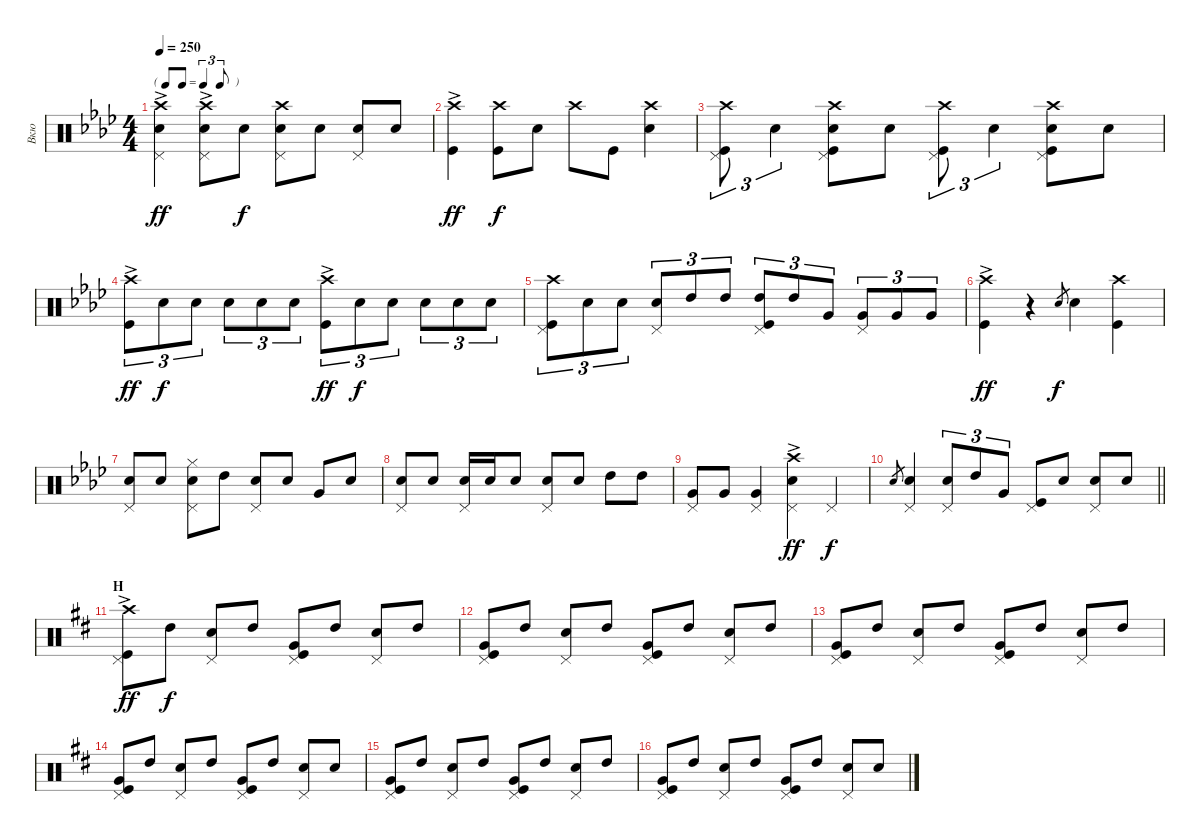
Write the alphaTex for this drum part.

\track ("Вкю" "Вкю") {instrument percussion}
\staff {score}
\articulation defaults
\ts (4 4)
\tf triplet8th
\tempo 250
\clef neutral
\ks ab
("Crash high (hit)"{ac} "Snare (hit) 2"{ac} "Pedal Hi-Hat (hit)"{ac}).4{dy ff} ("Crash high (hit)"{ac} "Snare (hit) 2"{ac} "Pedal Hi-Hat (hit)"{ac}).8 "Snare (hit) 2".8{dy f} ("Crash high (hit)" "Snare (hit) 2" "Pedal Hi-Hat (hit)").8 "Snare (hit) 2".8 ("Snare (hit) 2" "Pedal Hi-Hat (hit)").8 "Snare (hit) 2".8 |
("Crash high (hit)"{ac} "Kick (hit)"{ac}).4{dy ff} ("Crash high (hit)" "Kick (hit)").8{dy f} "Snare (hit) 2".8 "Crash high (hit)".8 "Kick (hit)".8 ("Crash high (hit)" "Snare (hit) 2").4 |
("Crash high (hit)" "Kick (hit)" "Pedal Hi-Hat (hit)").8{tu (3 2)} "Snare (hit) 2".4{tu (3 2)} ("Crash high (hit)" "Snare (hit) 2" "Kick (hit)" "Pedal Hi-Hat (hit)").8 "Snare (hit) 2".8 ("Crash high (hit)" "Kick (hit)" "Pedal Hi-Hat (hit)").8{tu (3 2)} "Snare (hit) 2".4{tu (3 2)} ("Crash high (hit)" "Snare (hit) 2" "Kick (hit)" "Pedal Hi-Hat (hit)").8 "Snare (hit) 2".8 |
("Crash high (hit)"{ac} "Kick (hit)"{ac}).8{tu (3 2) dy ff} "Snare (hit) 2".8{tu (3 2) dy f} "Snare (hit) 2".8{tu (3 2)} "Snare (hit) 2".8{tu (3 2)} "Snare (hit) 2".8{tu (3 2)} "Snare (hit) 2".8{tu (3 2)} ("Crash high (hit)"{ac} "Kick (hit)"{ac}).8{tu (3 2) dy ff} "Snare (hit) 2".8{tu (3 2) dy f} "Snare (hit) 2".8{tu (3 2)} "Snare (hit) 2".8{tu (3 2)} "Snare (hit) 2".8{tu (3 2)} "Snare (hit) 2".8{tu (3 2)} |
("Crash high (hit)" "Kick (hit)" "Pedal Hi-Hat (hit)").8{tu (3 2)} "Snare (hit) 2".8{tu (3 2)} "Snare (hit) 2".8{tu (3 2)} ("Snare (hit) 2" "Pedal Hi-Hat (hit)").8{tu (3 2)} "High Tom (hit)".8{tu (3 2)} "High Tom (hit)".8{tu (3 2)} ("High Tom (hit)" "Kick (hit)" "Pedal Hi-Hat (hit)").8{tu (3 2)} "High Tom (hit)".8{tu (3 2)} "Very Low Tom (hit)".8{tu (3 2)} ("Very Low Tom (hit)" "Pedal Hi-Hat (hit)").8{tu (3 2)} "Very Low Tom (hit)".8{tu (3 2)} "Very Low Tom (hit)".8{tu (3 2)} |
("Crash high (hit)"{ac} "Kick (hit)").4{dy ff} r.4 "Snare (hit) 2".8{gr dy f} "Snare (hit) 2".4 ("Crash high (hit)" "Kick (hit)").4 |
("Snare (hit) 2" "Pedal Hi-Hat (hit)").8 "Snare (hit) 2".8 ("Hi-Hat (closed)" "Snare (hit) 2" "Pedal Hi-Hat (hit)").8 "High Tom (hit)".8 ("Snare (hit) 2" "Pedal Hi-Hat (hit)").8 "Snare (hit) 2".8 "Very Low Tom (hit)".8 "Snare (hit) 2".8 |
("Snare (hit) 2" "Pedal Hi-Hat (hit)").8 "Snare (hit) 2".8 ("Snare (hit) 2" "Pedal Hi-Hat (hit)").16 "Snare (hit) 2".16 "Snare (hit) 2".8 ("Snare (hit) 2" "Pedal Hi-Hat (hit)").8 "Snare (hit) 2".8 "High Tom (hit)".8 "High Tom (hit)".8 |
("Very Low Tom (hit)" "Pedal Hi-Hat (hit)").8 "Very Low Tom (hit)".8 ("Very Low Tom (hit)" "Pedal Hi-Hat (hit)").4 ("Crash high (hit)"{ac} "Snare (hit) 2"{ac} "Pedal Hi-Hat (hit)"{ac}).4{dy ff} "Pedal Hi-Hat (hit)".4{dy f} |
\barLineRight lightlight "Snare (hit) 2".8{gr}
("Snare (hit) 2" "Pedal Hi-Hat (hit)").4 ("Snare (hit) 2" "Pedal Hi-Hat (hit)").8{tu (3 2)} "High Tom (hit)".8{tu (3 2)} "Very Low Tom (hit)".8{tu (3 2)} ("Kick (hit)" "Pedal Hi-Hat (hit)").8 "Snare (hit) 2".8 ("Snare (hit) 2" "Pedal Hi-Hat (hit)").8 "Snare (hit) 2".8 |
\section ("" "H")
\ks d
("Crash high (hit)"{ac} "Kick (hit)"{ac} "Pedal Hi-Hat (hit)"{ac}).8{dy ff} "High Tom (hit)".8{dy f} ("Snare (hit) 2" "Pedal Hi-Hat (hit)").8 "High Tom (hit)".8 ("Very Low Tom (hit)" "Kick (hit)" "Pedal Hi-Hat (hit)").8 "High Tom (hit)".8 ("Snare (hit) 2" "Pedal Hi-Hat (hit)").8 "High Tom (hit)".8 |
("Very Low Tom (hit)" "Kick (hit)" "Pedal Hi-Hat (hit)").8 "High Tom (hit)".8 ("Snare (hit) 2" "Pedal Hi-Hat (hit)").8 "High Tom (hit)".8 ("Very Low Tom (hit)" "Kick (hit)" "Pedal Hi-Hat (hit)").8 "High Tom (hit)".8 ("Snare (hit) 2" "Pedal Hi-Hat (hit)").8 "High Tom (hit)".8 |
("Very Low Tom (hit)" "Kick (hit)" "Pedal Hi-Hat (hit)").8 "High Tom (hit)".8 ("Snare (hit) 2" "Pedal Hi-Hat (hit)").8 "High Tom (hit)".8 ("Very Low Tom (hit)" "Kick (hit)" "Pedal Hi-Hat (hit)").8 "High Tom (hit)".8 ("Snare (hit) 2" "Pedal Hi-Hat (hit)").8 "High Tom (hit)".8 |
("Very Low Tom (hit)" "Kick (hit)" "Pedal Hi-Hat (hit)").8 "High Tom (hit)".8 ("Snare (hit) 2" "Pedal Hi-Hat (hit)").8 "High Tom (hit)".8 ("Very Low Tom (hit)" "Kick (hit)" "Pedal Hi-Hat (hit)").8 "High Tom (hit)".8 ("Snare (hit) 2" "Pedal Hi-Hat (hit)").8 "Snare (hit) 2".8 |
("Very Low Tom (hit)" "Kick (hit)" "Pedal Hi-Hat (hit)").8 "High Tom (hit)".8 ("Snare (hit) 2" "Pedal Hi-Hat (hit)").8 "High Tom (hit)".8 ("Very Low Tom (hit)" "Kick (hit)" "Pedal Hi-Hat (hit)").8 "High Tom (hit)".8 ("Snare (hit) 2" "Pedal Hi-Hat (hit)").8 "High Tom (hit)".8 |
("Very Low Tom (hit)" "Kick (hit)" "Pedal Hi-Hat (hit)").8 "High Tom (hit)".8 ("Snare (hit) 2" "Pedal Hi-Hat (hit)").8 "High Tom (hit)".8 ("Very Low Tom (hit)" "Kick (hit)" "Pedal Hi-Hat (hit)").8 "High Tom (hit)".8 ("Snare (hit) 2" "Pedal Hi-Hat (hit)").8 "Snare (hit) 2".8
